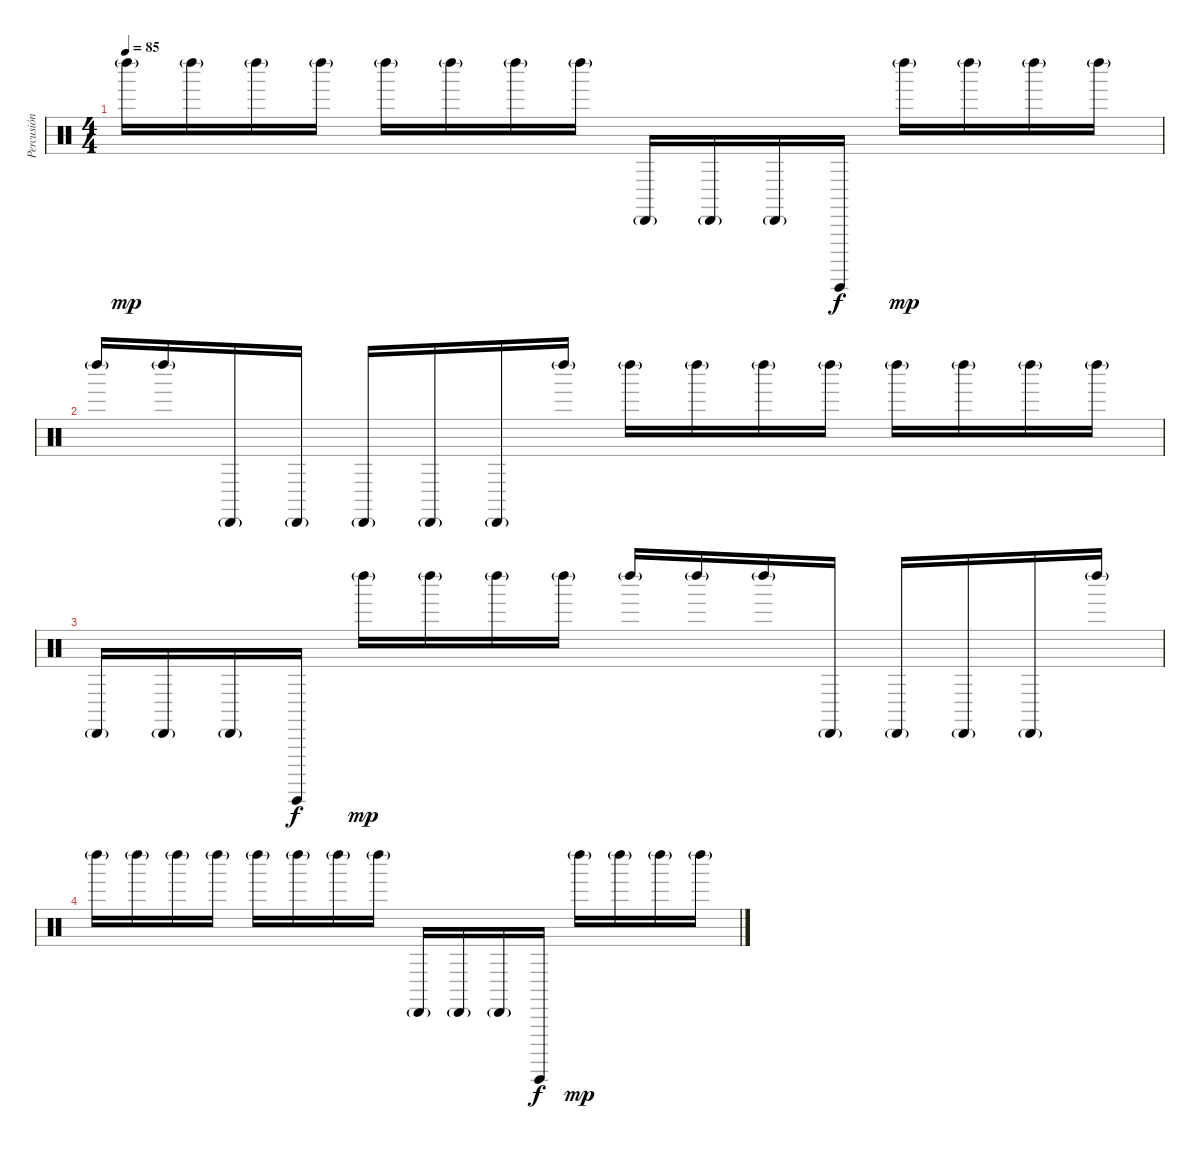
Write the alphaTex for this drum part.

\track ("Percusión" "Percusión") {instrument percussion}
\staff {score}
\articulation defaults
\ts (4 4)
\tempo 85
\clef neutral
\ks c "Left Maraca (hit)"{g}.16{dy mp} "Left Maraca (hit)"{g}.16 "Left Maraca (hit)"{g}.16 "Left Maraca (hit)"{g}.16 "Left Maraca (hit)"{g}.16 "Left Maraca (hit)"{g}.16 "Left Maraca (hit)"{g}.16 "Left Maraca (hit)"{g}.16 "Cabasa (hit)"{g}.16 "Cabasa (hit)"{g}.16 "Cabasa (hit)"{g}.16 "Guiro (hit)".16{dy f} "Left Maraca (hit)"{g}.16{dy mp} "Left Maraca (hit)"{g}.16 "Left Maraca (hit)"{g}.16 "Left Maraca (hit)"{g}.16
|
"Left Maraca (hit)"{g}.16 "Left Maraca (hit)"{g}.16 "Cabasa (hit)"{g}.16 "Cabasa (hit)"{g}.16 "Cabasa (hit)"{g}.16 "Cabasa (hit)"{g}.16 "Cabasa (hit)"{g}.16 "Left Maraca (hit)"{g}.16 "Left Maraca (hit)"{g}.16 "Left Maraca (hit)"{g}.16 "Left Maraca (hit)"{g}.16 "Left Maraca (hit)"{g}.16 "Left Maraca (hit)"{g}.16 "Left Maraca (hit)"{g}.16 "Left Maraca (hit)"{g}.16 "Left Maraca (hit)"{g}.16 |
"Cabasa (hit)"{g}.16 "Cabasa (hit)"{g}.16 "Cabasa (hit)"{g}.16 "Guiro (hit)".16{dy f} "Left Maraca (hit)"{g}.16{dy mp} "Left Maraca (hit)"{g}.16 "Left Maraca (hit)"{g}.16 "Left Maraca (hit)"{g}.16 "Left Maraca (hit)"{g}.16 "Left Maraca (hit)"{g}.16 "Left Maraca (hit)"{g}.16 "Cabasa (hit)"{g}.16 "Cabasa (hit)"{g}.16 "Cabasa (hit)"{g}.16 "Cabasa (hit)"{g}.16 "Left Maraca (hit)"{g}.16 |
"Left Maraca (hit)"{g}.16 "Left Maraca (hit)"{g}.16 "Left Maraca (hit)"{g}.16 "Left Maraca (hit)"{g}.16 "Left Maraca (hit)"{g}.16 "Left Maraca (hit)"{g}.16 "Left Maraca (hit)"{g}.16 "Left Maraca (hit)"{g}.16 "Cabasa (hit)"{g}.16 "Cabasa (hit)"{g}.16 "Cabasa (hit)"{g}.16 "Guiro (hit)".16{dy f} "Left Maraca (hit)"{g}.16{dy mp} "Left Maraca (hit)"{g}.16 "Left Maraca (hit)"{g}.16 "Left Maraca (hit)"{g}.16
